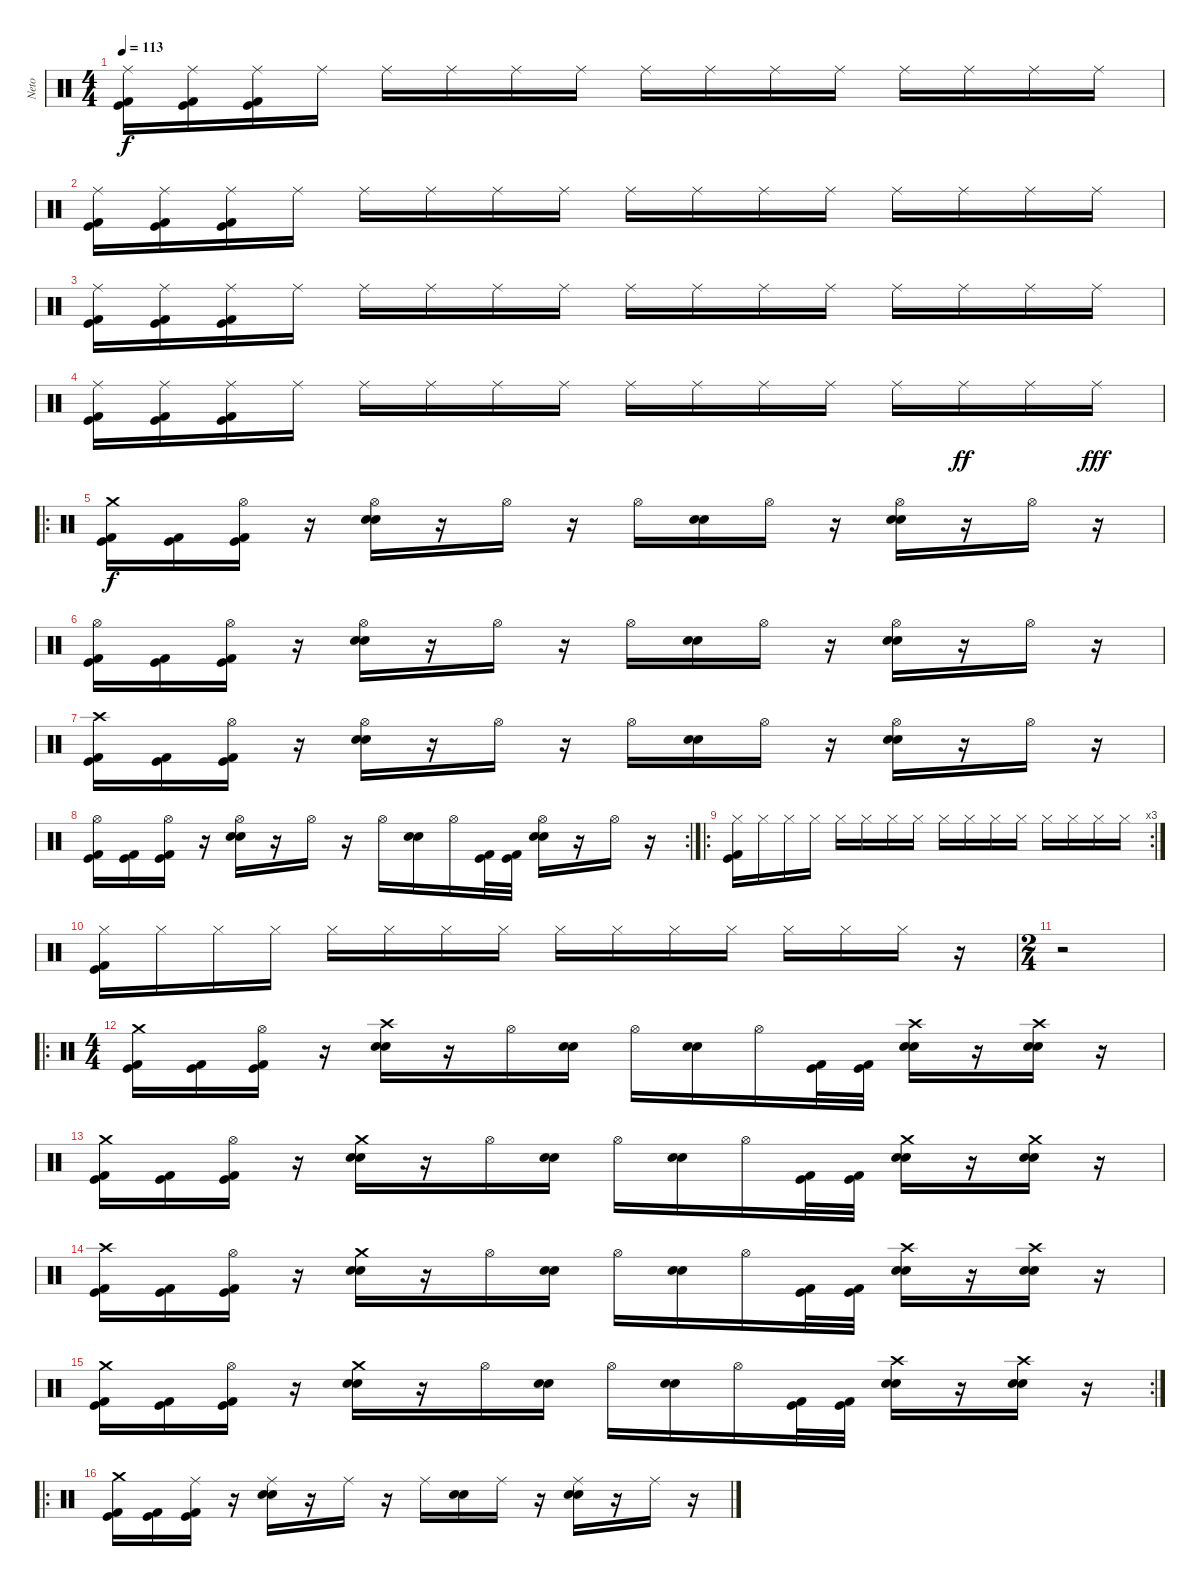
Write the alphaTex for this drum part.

\track ("Neto" "Neto") {instrument percussion}
\staff {score}
\articulation defaults
\ts (4 4)
\tempo 113
\clef neutral
\ks c
("Ride (middle)" "Kick (hit)" "Kick (hit) 2").16{dy f} ("Ride (middle)" "Kick (hit)" "Kick (hit) 2").16 ("Ride (middle)" "Kick (hit)" "Kick (hit) 2").16 "Ride (middle)".16 "Ride (middle)".16 "Ride (middle)".16 "Ride (middle)".16 "Ride (middle)".16 "Ride (middle)".16 "Ride (middle)".16 "Ride (middle)".16 "Ride (middle)".16 "Ride (middle)".16 "Ride (middle)".16 "Ride (middle)".16 "Ride (middle)".16 |
("Ride (middle)" "Kick (hit)" "Kick (hit) 2").16 ("Ride (middle)" "Kick (hit)" "Kick (hit) 2").16 ("Ride (middle)" "Kick (hit)" "Kick (hit) 2").16 "Ride (middle)".16 "Ride (middle)".16 "Ride (middle)".16 "Ride (middle)".16 "Ride (middle)".16 "Ride (middle)".16 "Ride (middle)".16 "Ride (middle)".16 "Ride (middle)".16 "Ride (middle)".16 "Ride (middle)".16 "Ride (middle)".16 "Ride (middle)".16 |
("Ride (middle)" "Kick (hit)" "Kick (hit) 2").16 ("Ride (middle)" "Kick (hit)" "Kick (hit) 2").16 ("Ride (middle)" "Kick (hit)" "Kick (hit) 2").16 "Ride (middle)".16 "Ride (middle)".16 "Ride (middle)".16 "Ride (middle)".16 "Ride (middle)".16 "Ride (middle)".16 "Ride (middle)".16 "Ride (middle)".16 "Ride (middle)".16 "Ride (middle)".16 "Ride (middle)".16 "Ride (middle)".16 "Ride (middle)".16 |
("Ride (middle)" "Kick (hit)" "Kick (hit) 2").16 ("Ride (middle)" "Kick (hit)" "Kick (hit) 2").16 ("Ride (middle)" "Kick (hit)" "Kick (hit) 2").16 "Ride (middle)".16 "Ride (middle)".16 "Ride (middle)".16 "Ride (middle)".16 "Ride (middle)".16 "Ride (middle)".16 "Ride (middle)".16 "Ride (middle)".16 "Ride (middle)".16 "Ride (middle)".16 "Ride (middle)".16{dy ff} "Ride (middle)".16 "Ride (middle)".16{dy fff} |
\ro
("Crash medium (hit)" "Kick (hit)" "Kick (hit) 2").16{dy f} ("Kick (hit)" "Kick (hit) 2").16 ("Hi-Hat (open)" "Kick (hit)" "Kick (hit) 2").16 r.16 ("Hi-Hat (open)" "Snare (hit) 2" "Snare (hit) 2").16 r.16 "Hi-Hat (open)".16 r.16 "Hi-Hat (open)".16 ("Snare (hit) 2" "Snare (hit) 2").16 "Hi-Hat (open)".16 r.16 ("Hi-Hat (open)" "Snare (hit) 2" "Snare (hit) 2").16 r.16 "Hi-Hat (open)".16 r.16 |
("Hi-Hat (open)" "Kick (hit)" "Kick (hit) 2").16 ("Kick (hit)" "Kick (hit) 2").16 ("Hi-Hat (open)" "Kick (hit)" "Kick (hit) 2").16 r.16 ("Hi-Hat (open)" "Snare (hit) 2" "Snare (hit) 2").16 r.16 "Hi-Hat (open)".16 r.16 "Hi-Hat (open)".16 ("Snare (hit) 2" "Snare (hit) 2").16 "Hi-Hat (open)".16 r.16 ("Hi-Hat (open)" "Snare (hit) 2" "Snare (hit) 2").16 r.16 "Hi-Hat (open)".16 r.16 |
("Crash high (hit)" "Kick (hit)" "Kick (hit) 2").16 ("Kick (hit)" "Kick (hit) 2").16 ("Hi-Hat (open)" "Kick (hit)" "Kick (hit) 2").16 r.16 ("Hi-Hat (open)" "Snare (hit) 2" "Snare (hit) 2").16 r.16 "Hi-Hat (open)".16 r.16 "Hi-Hat (open)".16 ("Snare (hit) 2" "Snare (hit) 2").16 "Hi-Hat (open)".16 r.16 ("Hi-Hat (open)" "Snare (hit) 2" "Snare (hit) 2").16 r.16 "Hi-Hat (open)".16 r.16 |
\rc 2
("Hi-Hat (open)" "Kick (hit)" "Kick (hit) 2").16 ("Kick (hit)" "Kick (hit) 2").16 ("Hi-Hat (open)" "Kick (hit)" "Kick (hit) 2").16 r.16 ("Hi-Hat (open)" "Snare (hit) 2" "Snare (hit) 2").16 r.16 "Hi-Hat (open)".16 r.16 "Hi-Hat (open)".16 ("Snare (hit) 2" "Snare (hit) 2").16 "Hi-Hat (open)".16 ("Kick (hit)" "Kick (hit) 2").32 ("Kick (hit)" "Kick (hit) 2").32 ("Hi-Hat (open)" "Snare (hit) 2" "Snare (hit) 2").16 r.16 "Hi-Hat (open)".16 r.16 |
\ro
\rc 3
("Hi-Hat (closed)" "Kick (hit)" "Kick (hit) 2").16 "Hi-Hat (closed)".16 "Hi-Hat (closed)".16 "Hi-Hat (closed)".16 "Hi-Hat (closed)".16 "Hi-Hat (closed)".16 "Hi-Hat (closed)".16 "Hi-Hat (closed)".16 "Hi-Hat (closed)".16 "Hi-Hat (closed)".16 "Hi-Hat (closed)".16 "Hi-Hat (closed)".16 "Hi-Hat (closed)".16 "Hi-Hat (closed)".16 "Hi-Hat (closed)".16 "Hi-Hat (closed)".16 |
("Hi-Hat (closed)" "Kick (hit)" "Kick (hit) 2").16 "Hi-Hat (closed)".16 "Hi-Hat (closed)".16 "Hi-Hat (closed)".16 "Hi-Hat (closed)".16 "Hi-Hat (closed)".16 "Hi-Hat (closed)".16 "Hi-Hat (closed)".16 "Hi-Hat (closed)".16 "Hi-Hat (closed)".16 "Hi-Hat (closed)".16 "Hi-Hat (closed)".16 "Hi-Hat (closed)".16 "Hi-Hat (closed)".16 "Hi-Hat (closed)".16 r.16 |
\ts (2 4)
r.2 |
\ro
\ts (4 4)
("Crash medium (hit)" "Kick (hit)" "Kick (hit) 2").16 ("Kick (hit)" "Kick (hit) 2").16 ("Hi-Hat (open)" "Kick (hit)" "Kick (hit) 2").16 r.16 ("Crash high (hit)" "Snare (hit) 2" "Snare (hit) 2").16 r.16 "Hi-Hat (open)".16 ("Snare (hit) 2" "Snare (hit) 2").16 "Hi-Hat (open)".16 ("Snare (hit) 2" "Snare (hit) 2").16 "Hi-Hat (open)".16 ("Kick (hit)" "Kick (hit) 2").32 ("Kick (hit)" "Kick (hit) 2").32 ("Crash high (hit)" "Snare (hit) 2" "Snare (hit) 2").16 r.16 ("Crash high (hit)" "Snare (hit) 2" "Snare (hit) 2").16 r.16 |
("Crash medium (hit)" "Kick (hit)" "Kick (hit) 2").16 ("Kick (hit)" "Kick (hit) 2").16 ("Hi-Hat (open)" "Kick (hit)" "Kick (hit) 2").16 r.16 ("Crash medium (hit)" "Snare (hit) 2" "Snare (hit) 2").16 r.16 "Hi-Hat (open)".16 ("Snare (hit) 2" "Snare (hit) 2").16 "Hi-Hat (open)".16 ("Snare (hit) 2" "Snare (hit) 2").16 "Hi-Hat (open)".16 ("Kick (hit)" "Kick (hit) 2").32 ("Kick (hit)" "Kick (hit) 2").32 ("Crash medium (hit)" "Snare (hit) 2" "Snare (hit) 2").16 r.16 ("Crash medium (hit)" "Snare (hit) 2" "Snare (hit) 2").16 r.16 |
("Crash high (hit)" "Kick (hit)" "Kick (hit) 2").16 ("Kick (hit)" "Kick (hit) 2").16 ("Hi-Hat (open)" "Kick (hit)" "Kick (hit) 2").16 r.16 ("Crash medium (hit)" "Snare (hit) 2" "Snare (hit) 2").16 r.16 "Hi-Hat (open)".16 ("Snare (hit) 2" "Snare (hit) 2").16 "Hi-Hat (open)".16 ("Snare (hit) 2" "Snare (hit) 2").16 "Hi-Hat (open)".16 ("Kick (hit)" "Kick (hit) 2").32 ("Kick (hit)" "Kick (hit) 2").32 ("Crash high (hit)" "Snare (hit) 2" "Snare (hit) 2").16 r.16 ("Crash high (hit)" "Snare (hit) 2" "Snare (hit) 2").16 r.16 |
\rc 2
("Crash medium (hit)" "Kick (hit)" "Kick (hit) 2").16 ("Kick (hit)" "Kick (hit) 2").16 ("Hi-Hat (open)" "Kick (hit)" "Kick (hit) 2").16 r.16 ("Crash medium (hit)" "Snare (hit) 2" "Snare (hit) 2").16 r.16 "Hi-Hat (open)".16 ("Snare (hit) 2" "Snare (hit) 2").16 "Hi-Hat (open)".16 ("Snare (hit) 2" "Snare (hit) 2").16 "Hi-Hat (open)".16 ("Kick (hit)" "Kick (hit) 2").32 ("Kick (hit)" "Kick (hit) 2").32 ("Crash high (hit)" "Snare (hit) 2" "Snare (hit) 2").16 r.16 ("Crash high (hit)" "Snare (hit) 2" "Snare (hit) 2").16 r.16 |
\ro
("Crash medium (hit)" "Kick (hit)" "Kick (hit) 2").16 ("Kick (hit)" "Kick (hit) 2").16 ("Ride (middle)" "Kick (hit)" "Kick (hit) 2").16 r.16 ("Ride (middle)" "Snare (hit) 2" "Snare (hit) 2").16 r.16 "Ride (middle)".16 r.16 "Ride (middle)".16 ("Snare (hit) 2" "Snare (hit) 2").16 "Ride (middle)".16 r.16 ("Ride (middle)" "Snare (hit) 2" "Snare (hit) 2").16 r.16 "Ride (middle)".16 r.16
